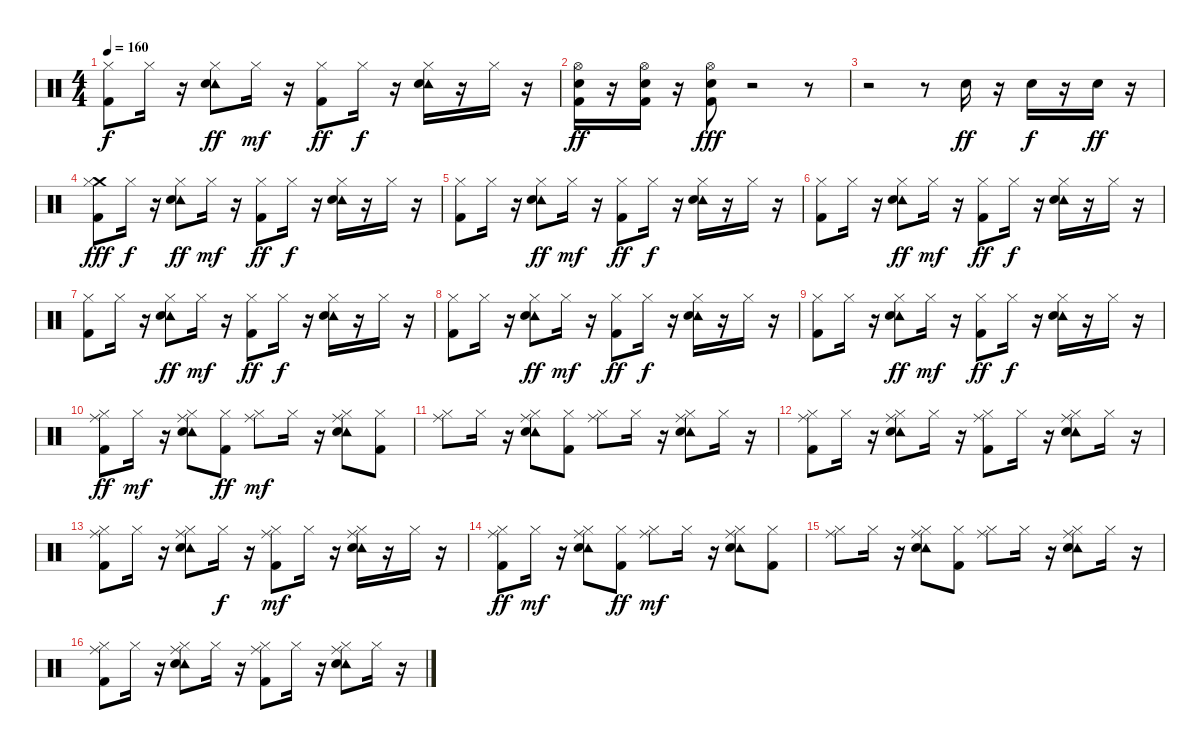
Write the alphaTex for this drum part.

\track "" {instrument percussion}
\staff {score}
\articulation defaults
\ts (4 4)
\tempo 160
\clef neutral
\ks c
("Hi-Hat (closed)" "Kick (hit) 2").8{dy f} "Hi-Hat (closed)".16 r.16 ("Tambourine (hit)" "Hi-Hat (closed)" "Snare (hit) 2").8{dy ff} "Hi-Hat (closed)".16{dy mf} r.16 ("Hi-Hat (closed)" "Kick (hit) 2").8{dy ff} "Hi-Hat (closed)".16{dy f} r.16 ("Tambourine (hit)" "Hi-Hat (closed)" "Snare (hit) 2").16 r.16 "Hi-Hat (closed)".16 r.16 |
("Hi-Hat (open)" "Snare (hit) 2" "Kick (hit) 2").16{dy ff} r.16 ("Snare (hit) 2" "Kick (hit) 2" "Hi-Hat (open)").16 r.16 ("Snare (hit) 2" "Kick (hit) 2" "Hi-Hat (open)").8{dy fff} r.2 r.8 |
r.2 r.8 "Snare (hit) 2".16{dy ff} r.16 "Snare (hit) 2".16{dy f} r.16 "Snare (hit) 2".16{dy ff} r.16 |
("Crash medium (hit)" "Hi-Hat (closed)" "Kick (hit) 2").8{dy fff} "Hi-Hat (closed)".16{dy f} r.16 ("Tambourine (hit)" "Hi-Hat (closed)" "Snare (hit) 2").8{dy ff} "Hi-Hat (closed)".16{dy mf} r.16 ("Hi-Hat (closed)" "Kick (hit) 2").8{dy ff} "Hi-Hat (closed)".16{dy f} r.16 ("Tambourine (hit)" "Hi-Hat (closed)" "Snare (hit) 2").16 r.16 "Hi-Hat (closed)".16 r.16 |
("Hi-Hat (closed)" "Kick (hit) 2").8 "Hi-Hat (closed)".16 r.16 ("Tambourine (hit)" "Hi-Hat (closed)" "Snare (hit) 2").8{dy ff} "Hi-Hat (closed)".16{dy mf} r.16 ("Hi-Hat (closed)" "Kick (hit) 2").8{dy ff} "Hi-Hat (closed)".16{dy f} r.16 ("Tambourine (hit)" "Hi-Hat (closed)" "Snare (hit) 2").16 r.16 "Hi-Hat (closed)".16 r.16 |
("Hi-Hat (closed)" "Kick (hit) 2").8 "Hi-Hat (closed)".16 r.16 ("Tambourine (hit)" "Hi-Hat (closed)" "Snare (hit) 2").8{dy ff} "Hi-Hat (closed)".16{dy mf} r.16 ("Hi-Hat (closed)" "Kick (hit) 2").8{dy ff} "Hi-Hat (closed)".16{dy f} r.16 ("Tambourine (hit)" "Hi-Hat (closed)" "Snare (hit) 2").16 r.16 "Hi-Hat (closed)".16 r.16 |
("Hi-Hat (closed)" "Kick (hit) 2").8 "Hi-Hat (closed)".16 r.16 ("Tambourine (hit)" "Hi-Hat (closed)" "Snare (hit) 2").8{dy ff} "Hi-Hat (closed)".16{dy mf} r.16 ("Hi-Hat (closed)" "Kick (hit) 2").8{dy ff} "Hi-Hat (closed)".16{dy f} r.16 ("Tambourine (hit)" "Hi-Hat (closed)" "Snare (hit) 2").16 r.16 "Hi-Hat (closed)".16 r.16 |
("Hi-Hat (closed)" "Kick (hit) 2").8 "Hi-Hat (closed)".16 r.16 ("Tambourine (hit)" "Hi-Hat (closed)" "Snare (hit) 2").8{dy ff} "Hi-Hat (closed)".16{dy mf} r.16 ("Hi-Hat (closed)" "Kick (hit) 2").8{dy ff} "Hi-Hat (closed)".16{dy f} r.16 ("Tambourine (hit)" "Hi-Hat (closed)" "Snare (hit) 2").16 r.16 "Hi-Hat (closed)".16 r.16 |
("Hi-Hat (closed)" "Kick (hit) 2").8 "Hi-Hat (closed)".16 r.16 ("Tambourine (hit)" "Hi-Hat (closed)" "Snare (hit) 2").8{dy ff} "Hi-Hat (closed)".16{dy mf} r.16 ("Hi-Hat (closed)" "Kick (hit) 2").8{dy ff} "Hi-Hat (closed)".16{dy f} r.16 ("Tambourine (hit)" "Hi-Hat (closed)" "Snare (hit) 2").16 r.16 "Hi-Hat (closed)".16 r.16 |
("Ride (middle)" "Hi-Hat (closed)" "Kick (hit) 2").8{dy ff} "Hi-Hat (closed)".16{dy mf} r.16 ("Tambourine (hit)" "Ride (middle)" "Hi-Hat (closed)" "Snare (hit) 2").8 ("Hi-Hat (closed)" "Kick (hit) 2").8{dy ff} ("Ride (middle)" "Hi-Hat (closed)").8{dy mf} "Hi-Hat (closed)".16 r.16 ("Tambourine (hit)" "Ride (middle)" "Hi-Hat (closed)" "Snare (hit) 2").8 ("Hi-Hat (closed)" "Kick (hit) 2").8 |
("Ride (middle)" "Hi-Hat (closed)").8 "Hi-Hat (closed)".16 r.16 ("Tambourine (hit)" "Ride (middle)" "Hi-Hat (closed)" "Snare (hit) 2").8 ("Hi-Hat (closed)" "Kick (hit) 2").8 ("Ride (middle)" "Hi-Hat (closed)").8 "Hi-Hat (closed)".16 r.16 ("Tambourine (hit)" "Ride (middle)" "Hi-Hat (closed)" "Snare (hit) 2").8 "Hi-Hat (closed)".16 r.16 |
("Ride (middle)" "Hi-Hat (closed)" "Kick (hit) 2").8 "Hi-Hat (closed)".16 r.16 ("Tambourine (hit)" "Ride (middle)" "Hi-Hat (closed)" "Snare (hit) 2").8 "Hi-Hat (closed)".16 r.16 ("Ride (middle)" "Hi-Hat (closed)" "Kick (hit) 2").8 "Hi-Hat (closed)".16 r.16 ("Tambourine (hit)" "Ride (middle)" "Hi-Hat (closed)" "Snare (hit) 2").8 "Hi-Hat (closed)".16 r.16 |
("Ride (middle)" "Hi-Hat (closed)" "Kick (hit) 2").8 "Hi-Hat (closed)".16 r.16 ("Tambourine (hit)" "Ride (middle)" "Hi-Hat (closed)" "Snare (hit) 2").8 "Hi-Hat (closed)".16{dy f} r.16 ("Ride (middle)" "Hi-Hat (closed)" "Kick (hit) 2").8{dy mf} "Hi-Hat (closed)".16 r.16 ("Tambourine (hit)" "Ride (middle)" "Hi-Hat (closed)" "Snare (hit) 2").16 r.16 "Hi-Hat (closed)".16 r.16 |
("Ride (middle)" "Hi-Hat (closed)" "Kick (hit) 2").8{dy ff} "Hi-Hat (closed)".16{dy mf} r.16 ("Tambourine (hit)" "Ride (middle)" "Hi-Hat (closed)" "Snare (hit) 2").8 ("Hi-Hat (closed)" "Kick (hit) 2").8{dy ff} ("Ride (middle)" "Hi-Hat (closed)").8{dy mf} "Hi-Hat (closed)".16 r.16 ("Tambourine (hit)" "Ride (middle)" "Hi-Hat (closed)" "Snare (hit) 2").8 ("Hi-Hat (closed)" "Kick (hit) 2").8 |
("Ride (middle)" "Hi-Hat (closed)").8 "Hi-Hat (closed)".16 r.16 ("Tambourine (hit)" "Ride (middle)" "Hi-Hat (closed)" "Snare (hit) 2").8 ("Hi-Hat (closed)" "Kick (hit) 2").8 ("Ride (middle)" "Hi-Hat (closed)").8 "Hi-Hat (closed)".16 r.16 ("Tambourine (hit)" "Ride (middle)" "Hi-Hat (closed)" "Snare (hit) 2").8 "Hi-Hat (closed)".16 r.16 |
("Ride (middle)" "Hi-Hat (closed)" "Kick (hit) 2").8 "Hi-Hat (closed)".16 r.16 ("Tambourine (hit)" "Ride (middle)" "Hi-Hat (closed)" "Snare (hit) 2").8 "Hi-Hat (closed)".16 r.16 ("Ride (middle)" "Hi-Hat (closed)" "Kick (hit) 2").8 "Hi-Hat (closed)".16 r.16 ("Tambourine (hit)" "Ride (middle)" "Hi-Hat (closed)" "Snare (hit) 2").8 "Hi-Hat (closed)".16 r.16
